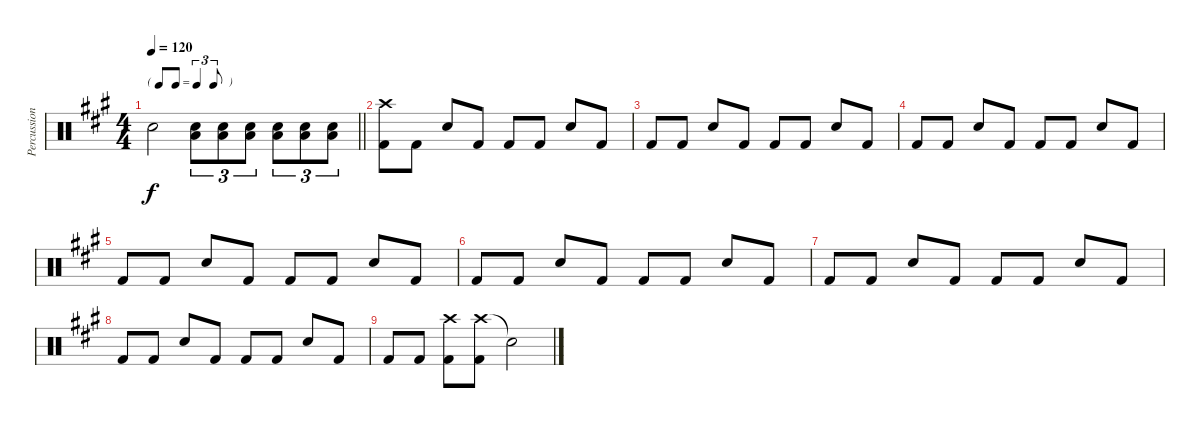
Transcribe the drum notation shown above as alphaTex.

\track ("Percussion" "Percussion") {instrument percussion}
\staff {score}
\articulation defaults
\ts (4 4)
\tf triplet8th
\tempo 120
\clef neutral
\barLineRight lightlight
\ks a "Snare (hit)"{t}.2{dy f}
("Snare (hit) 2" "Low Floor Tom (hit)").8{tu (3 2)} ("Snare (hit) 2" "Low Floor Tom (hit)").8{tu (3 2)} ("Snare (hit) 2" "Low Floor Tom (hit)").8{tu (3 2)} ("Snare (hit) 2" "Low Floor Tom (hit)").8{tu (3 2)} ("Snare (hit) 2" "Low Floor Tom (hit)").8{tu (3 2)} ("Snare (hit) 2" "Low Floor Tom (hit)").8{tu (3 2)} |
("Crash high (hit)" "Kick (hit) 2").8 "Kick (hit) 2".8 "Snare (hit) 2".8 "Kick (hit) 2".8 "Kick (hit) 2".8 "Kick (hit) 2".8 "Snare (hit) 2".8 "Kick (hit) 2".8 |
"Kick (hit) 2".8 "Kick (hit) 2".8 "Snare (hit) 2".8 "Kick (hit) 2".8 "Kick (hit) 2".8 "Kick (hit) 2".8 "Snare (hit) 2".8 "Kick (hit) 2".8 |
"Kick (hit) 2".8 "Kick (hit) 2".8 "Snare (hit) 2".8 "Kick (hit) 2".8 "Kick (hit) 2".8 "Kick (hit) 2".8 "Snare (hit) 2".8 "Kick (hit) 2".8 |
"Kick (hit) 2".8 "Kick (hit) 2".8 "Snare (hit) 2".8 "Kick (hit) 2".8 "Kick (hit) 2".8 "Kick (hit) 2".8 "Snare (hit) 2".8 "Kick (hit) 2".8 |
"Kick (hit) 2".8 "Kick (hit) 2".8 "Snare (hit) 2".8 "Kick (hit) 2".8 "Kick (hit) 2".8 "Kick (hit) 2".8 "Snare (hit) 2".8 "Kick (hit) 2".8 |
"Kick (hit) 2".8 "Kick (hit) 2".8 "Snare (hit) 2".8 "Kick (hit) 2".8 "Kick (hit) 2".8 "Kick (hit) 2".8 "Snare (hit) 2".8 "Kick (hit) 2".8 |
"Kick (hit) 2".8 "Kick (hit) 2".8 "Snare (hit) 2".8 "Kick (hit) 2".8 "Kick (hit) 2".8 "Kick (hit) 2".8 "Snare (hit) 2".8 "Kick (hit) 2".8 |
"Kick (hit) 2".8 "Kick (hit) 2".8 ("Crash high (hit)" "Kick (hit) 2").8 ("Crash high (hit)" "Kick (hit) 2").8 "Snare (hit)"{t}.2
